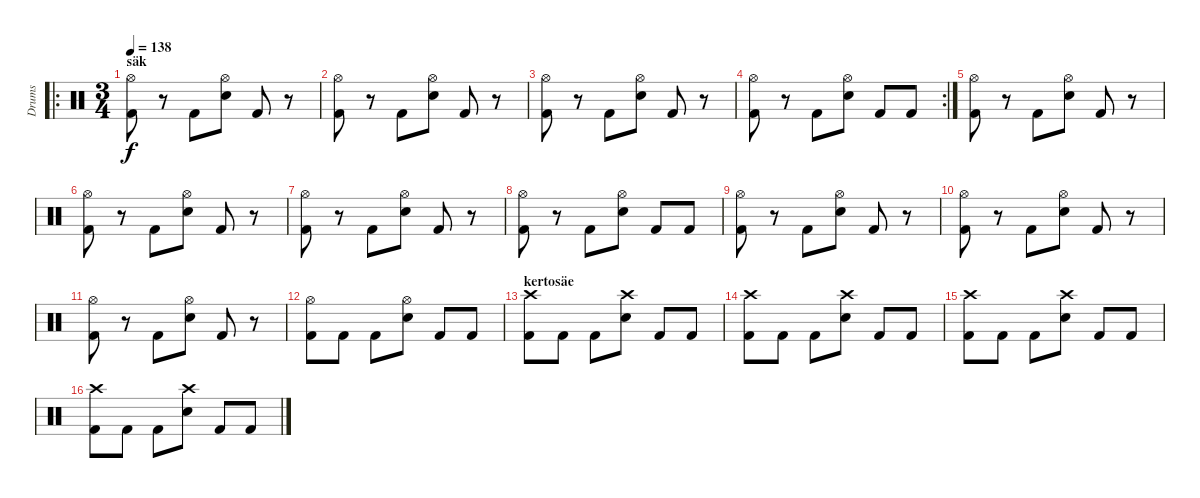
\track ("Drums" "Drums") {instrument percussion}
\staff {score}
\articulation defaults
\ro
\ts (3 4)
\section ("" "säk")
\tempo 138
\clef neutral
\ks c
("Hi-Hat (open)" "Kick (hit) 2").8{dy f} r.8 "Kick (hit) 2".8 ("Hi-Hat (open)" "Snare (hit) 2").8 "Kick (hit) 2".8 r.8 |
("Hi-Hat (open)" "Kick (hit) 2").8 r.8 "Kick (hit) 2".8 ("Hi-Hat (open)" "Snare (hit) 2").8 "Kick (hit) 2".8 r.8 |
("Hi-Hat (open)" "Kick (hit) 2").8 r.8 "Kick (hit) 2".8 ("Hi-Hat (open)" "Snare (hit) 2").8 "Kick (hit) 2".8 r.8 |
\rc 2
("Hi-Hat (open)" "Kick (hit) 2").8 r.8 "Kick (hit) 2".8 ("Hi-Hat (open)" "Snare (hit) 2").8 "Kick (hit) 2".8 "Kick (hit) 2".8 |
("Hi-Hat (open)" "Kick (hit) 2").8 r.8 "Kick (hit) 2".8 ("Hi-Hat (open)" "Snare (hit) 2").8 "Kick (hit) 2".8 r.8 |
("Hi-Hat (open)" "Kick (hit) 2").8 r.8 "Kick (hit) 2".8 ("Hi-Hat (open)" "Snare (hit) 2").8 "Kick (hit) 2".8 r.8 |
("Hi-Hat (open)" "Kick (hit) 2").8 r.8 "Kick (hit) 2".8 ("Hi-Hat (open)" "Snare (hit) 2").8 "Kick (hit) 2".8 r.8 |
("Hi-Hat (open)" "Kick (hit) 2").8 r.8 "Kick (hit) 2".8 ("Hi-Hat (open)" "Snare (hit) 2").8 "Kick (hit) 2".8 "Kick (hit) 2".8 |
("Hi-Hat (open)" "Kick (hit) 2").8 r.8 "Kick (hit) 2".8 ("Hi-Hat (open)" "Snare (hit) 2").8 "Kick (hit) 2".8 r.8 |
("Hi-Hat (open)" "Kick (hit) 2").8 r.8 "Kick (hit) 2".8 ("Hi-Hat (open)" "Snare (hit) 2").8 "Kick (hit) 2".8 r.8 |
("Hi-Hat (open)" "Kick (hit) 2").8 r.8 "Kick (hit) 2".8 ("Hi-Hat (open)" "Snare (hit) 2").8 "Kick (hit) 2".8 r.8 |
("Hi-Hat (open)" "Kick (hit) 2").8 "Kick (hit) 2".8 "Kick (hit) 2".8 ("Hi-Hat (open)" "Snare (hit) 2").8 "Kick (hit) 2".8 "Kick (hit) 2".8 |
\section ("" "kertosäe")
("Crash high (hit)" "Kick (hit) 2").8 "Kick (hit) 2".8 "Kick (hit) 2".8 ("Crash high (hit)" "Snare (hit) 2").8 "Kick (hit) 2".8 "Kick (hit) 2".8 |
("Crash high (hit)" "Kick (hit) 2").8 "Kick (hit) 2".8 "Kick (hit) 2".8 ("Crash high (hit)" "Snare (hit) 2").8 "Kick (hit) 2".8 "Kick (hit) 2".8 |
("Crash high (hit)" "Kick (hit) 2").8 "Kick (hit) 2".8 "Kick (hit) 2".8 ("Crash high (hit)" "Snare (hit) 2").8 "Kick (hit) 2".8 "Kick (hit) 2".8 |
("Crash high (hit)" "Kick (hit) 2").8 "Kick (hit) 2".8 "Kick (hit) 2".8 ("Crash high (hit)" "Snare (hit) 2").8 "Kick (hit) 2".8 "Kick (hit) 2".8
